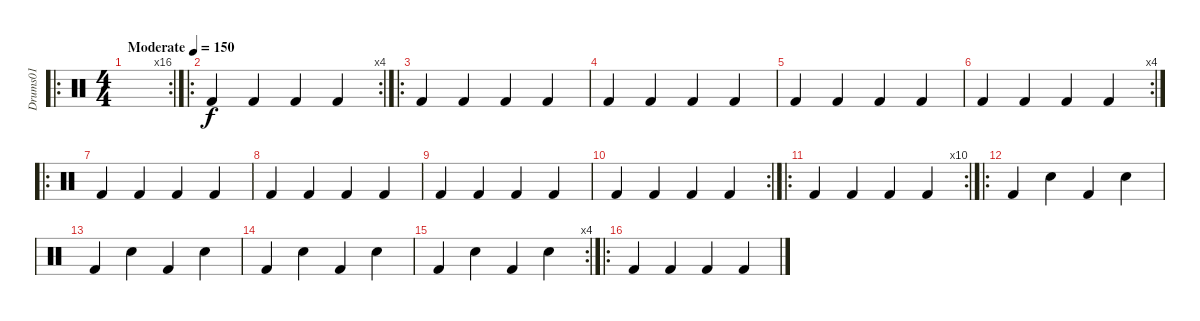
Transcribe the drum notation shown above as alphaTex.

\track ("Drums01" "Drums01") {instrument percussion}
\staff {score}
\articulation defaults
\ro
\rc 16
\ts (4 4)
\tempo (150 "Moderate")
\clef neutral
\ks c
|
\ro
\rc 4 "Kick (hit) 2".4 "Kick (hit) 2".4 "Kick (hit) 2".4 "Kick (hit) 2".4
|
\ro "Kick (hit) 2".4 "Kick (hit) 2".4 "Kick (hit) 2".4 "Kick (hit) 2".4
|
"Kick (hit) 2".4 "Kick (hit) 2".4 "Kick (hit) 2".4 "Kick (hit) 2".4 |
"Kick (hit) 2".4 "Kick (hit) 2".4 "Kick (hit) 2".4 "Kick (hit) 2".4 |
\rc 4 "Kick (hit) 2".4 "Kick (hit) 2".4 "Kick (hit) 2".4 "Kick (hit) 2".4
|
\ro "Kick (hit) 2".4 "Kick (hit) 2".4 "Kick (hit) 2".4 "Kick (hit) 2".4
|
"Kick (hit) 2".4 "Kick (hit) 2".4 "Kick (hit) 2".4 "Kick (hit) 2".4 |
"Kick (hit) 2".4 "Kick (hit) 2".4 "Kick (hit) 2".4 "Kick (hit) 2".4 |
\rc 2 "Kick (hit) 2".4 "Kick (hit) 2".4 "Kick (hit) 2".4 "Kick (hit) 2".4
|
\ro
\rc 10 "Kick (hit) 2".4 "Kick (hit) 2".4 "Kick (hit) 2".4 "Kick (hit) 2".4
|
\ro "Kick (hit) 2".4 "Snare (hit) 2".4 "Kick (hit) 2".4 "Snare (hit) 2".4
|
"Kick (hit) 2".4 "Snare (hit) 2".4 "Kick (hit) 2".4 "Snare (hit) 2".4 |
"Kick (hit) 2".4 "Snare (hit) 2".4 "Kick (hit) 2".4 "Snare (hit) 2".4 |
\rc 4 "Kick (hit) 2".4 "Snare (hit) 2".4 "Kick (hit) 2".4 "Snare (hit) 2".4
|
\ro "Kick (hit) 2".4 "Kick (hit) 2".4 "Kick (hit) 2".4 "Kick (hit) 2".4
